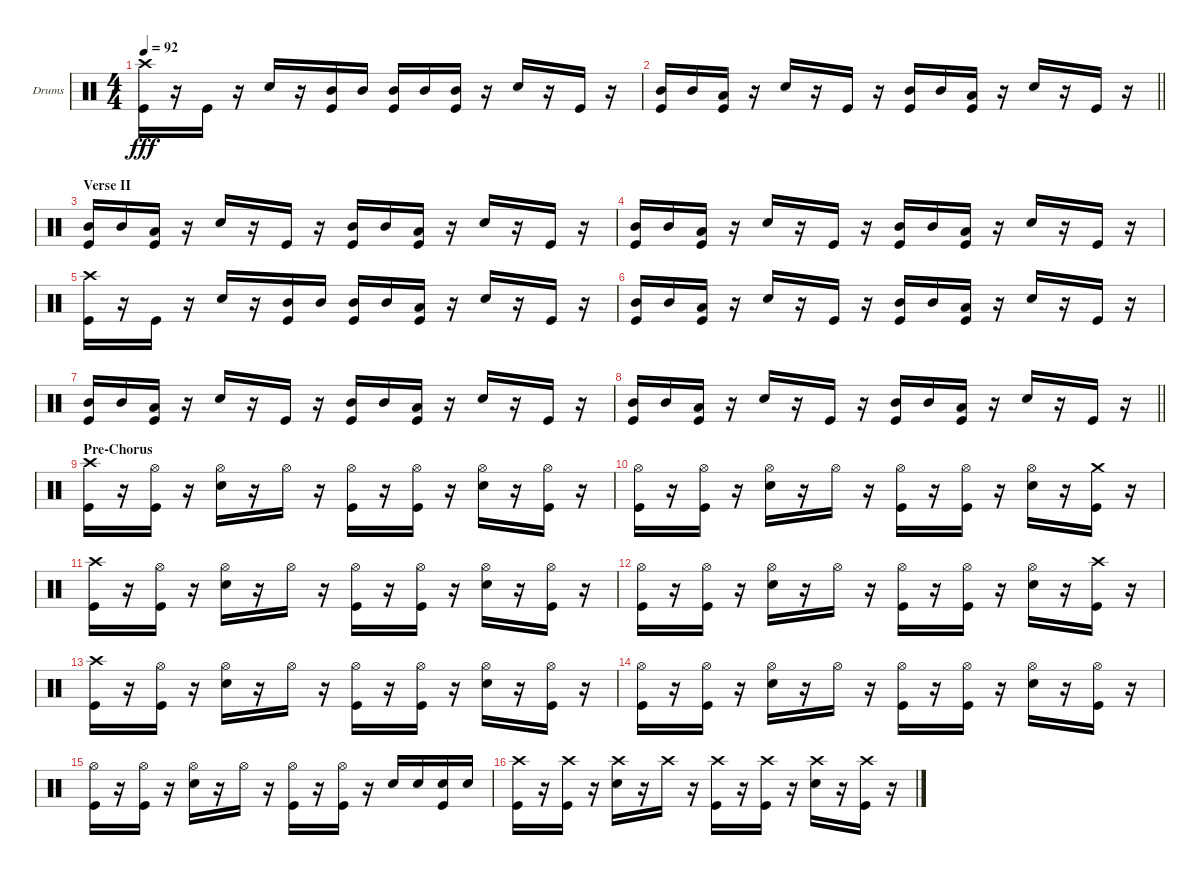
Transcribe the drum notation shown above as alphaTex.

\bracketExtendMode groupsimilarinstruments
\firstSystemTrackNameOrientation horizontal
\otherSystemsTrackNameOrientation horizontal
\track ("Drums" "Drums") {instrument percussion}
\staff {score}
\articulation defaults
\ts (4 4)
\tempo 92
\clef neutral
\ks c
("Crash high (hit)" "Kick (hit)").16{dy fff} r.16 "Kick (hit)".16 r.16 "Snare (hit) 2".16 r.16 ("Kick (hit)" "Mid Tom (hit)").16 "Mid Tom (hit)".16 ("Mid Tom (hit)" "Kick (hit)").16 "Mid Tom (hit)".16 ("Mid Tom (hit)" "Kick (hit)").16 r.16 "Snare (hit) 2".16 r.16 "Kick (hit)".16 r.16 |
\barLineRight lightlight
("Mid Tom (hit)" "Kick (hit)").16 "Mid Tom (hit)".16 ("Low Tom (hit)" "Kick (hit)").16 r.16 "Snare (hit) 2".16 r.16 "Kick (hit)".16 r.16 ("Mid Tom (hit)" "Kick (hit)").16 "Mid Tom (hit)".16 ("Low Tom (hit)" "Kick (hit)").16 r.16 "Snare (hit) 2".16 r.16 "Kick (hit)".16 r.16 |
\section ("" "Verse II")
("Mid Tom (hit)" "Kick (hit)").16 "Mid Tom (hit)".16 ("Low Tom (hit)" "Kick (hit)").16 r.16 "Snare (hit) 2".16 r.16 "Kick (hit)".16 r.16 ("Mid Tom (hit)" "Kick (hit)").16 "Mid Tom (hit)".16 ("Low Tom (hit)" "Kick (hit)").16 r.16 "Snare (hit) 2".16 r.16 "Kick (hit)".16 r.16 |
("Mid Tom (hit)" "Kick (hit)").16 "Mid Tom (hit)".16 ("Low Tom (hit)" "Kick (hit)").16 r.16 "Snare (hit) 2".16 r.16 "Kick (hit)".16 r.16 ("Mid Tom (hit)" "Kick (hit)").16 "Mid Tom (hit)".16 ("Low Tom (hit)" "Kick (hit)").16 r.16 "Snare (hit) 2".16 r.16 "Kick (hit)".16 r.16 |
("Crash high (hit)" "Kick (hit)").16 r.16 "Kick (hit)".16 r.16 "Snare (hit) 2".16 r.16 ("Kick (hit)" "Mid Tom (hit)").16 "Mid Tom (hit)".16 ("Mid Tom (hit)" "Kick (hit)").16 "Mid Tom (hit)".16 ("Low Tom (hit)" "Kick (hit)").16 r.16 "Snare (hit) 2".16 r.16 "Kick (hit)".16 r.16 |
("Mid Tom (hit)" "Kick (hit)").16 "Mid Tom (hit)".16 ("Low Tom (hit)" "Kick (hit)").16 r.16 "Snare (hit) 2".16 r.16 "Kick (hit)".16 r.16 ("Mid Tom (hit)" "Kick (hit)").16 "Mid Tom (hit)".16 ("Low Tom (hit)" "Kick (hit)").16 r.16 "Snare (hit) 2".16 r.16 "Kick (hit)".16 r.16 |
("Mid Tom (hit)" "Kick (hit)").16 "Mid Tom (hit)".16 ("Low Tom (hit)" "Kick (hit)").16 r.16 "Snare (hit) 2".16 r.16 "Kick (hit)".16 r.16 ("Mid Tom (hit)" "Kick (hit)").16 "Mid Tom (hit)".16 ("Low Tom (hit)" "Kick (hit)").16 r.16 "Snare (hit) 2".16 r.16 "Kick (hit)".16 r.16 |
\barLineRight lightlight
("Mid Tom (hit)" "Kick (hit)").16 "Mid Tom (hit)".16 ("Low Tom (hit)" "Kick (hit)").16 r.16 "Snare (hit) 2".16 r.16 "Kick (hit)".16 r.16 ("Mid Tom (hit)" "Kick (hit)").16 "Mid Tom (hit)".16 ("Low Tom (hit)" "Kick (hit)").16 r.16 "Snare (hit) 2".16 r.16 "Kick (hit)".16 r.16 |
\section ("" "Pre-Chorus")
("Crash high (hit)" "Kick (hit)").16 r.16 ("Hi-Hat (open)" "Kick (hit)").16 r.16 ("Hi-Hat (open)" "Snare (hit) 2").16 r.16 "Hi-Hat (open)".16 r.16 ("Hi-Hat (open)" "Kick (hit)").16 r.16 ("Hi-Hat (open)" "Kick (hit)").16 r.16 ("Hi-Hat (open)" "Snare (hit) 2").16 r.16 ("Hi-Hat (open)" "Kick (hit)").16 r.16 |
("Hi-Hat (open)" "Kick (hit)").16 r.16 ("Hi-Hat (open)" "Kick (hit)").16 r.16 ("Hi-Hat (open)" "Snare (hit) 2").16 r.16 "Hi-Hat (open)".16 r.16 ("Hi-Hat (open)" "Kick (hit)").16 r.16 ("Hi-Hat (open)" "Kick (hit)").16 r.16 ("Hi-Hat (open)" "Snare (hit) 2").16 r.16 ("Crash medium (hit)" "Kick (hit)").16 r.16 |
("Crash high (hit)" "Kick (hit)").16 r.16 ("Hi-Hat (open)" "Kick (hit)").16 r.16 ("Hi-Hat (open)" "Snare (hit) 2").16 r.16 "Hi-Hat (open)".16 r.16 ("Hi-Hat (open)" "Kick (hit)").16 r.16 ("Hi-Hat (open)" "Kick (hit)").16 r.16 ("Hi-Hat (open)" "Snare (hit) 2").16 r.16 ("Hi-Hat (open)" "Kick (hit)").16 r.16 |
("Hi-Hat (open)" "Kick (hit)").16 r.16 ("Hi-Hat (open)" "Kick (hit)").16 r.16 ("Hi-Hat (open)" "Snare (hit) 2").16 r.16 "Hi-Hat (open)".16 r.16 ("Hi-Hat (open)" "Kick (hit)").16 r.16 ("Hi-Hat (open)" "Kick (hit)").16 r.16 ("Hi-Hat (open)" "Snare (hit) 2").16 r.16 ("Crash high (hit)" "Kick (hit)").16 r.16 |
("Crash high (hit)" "Kick (hit)").16 r.16 ("Hi-Hat (open)" "Kick (hit)").16 r.16 ("Hi-Hat (open)" "Snare (hit) 2").16 r.16 "Hi-Hat (open)".16 r.16 ("Hi-Hat (open)" "Kick (hit)").16 r.16 ("Hi-Hat (open)" "Kick (hit)").16 r.16 ("Hi-Hat (open)" "Snare (hit) 2").16 r.16 ("Hi-Hat (open)" "Kick (hit)").16 r.16 |
("Hi-Hat (open)" "Kick (hit)").16 r.16 ("Hi-Hat (open)" "Kick (hit)").16 r.16 ("Hi-Hat (open)" "Snare (hit) 2").16 r.16 "Hi-Hat (open)".16 r.16 ("Hi-Hat (open)" "Kick (hit)").16 r.16 ("Hi-Hat (open)" "Kick (hit)").16 r.16 ("Hi-Hat (open)" "Snare (hit) 2").16 r.16 ("Hi-Hat (open)" "Kick (hit)").16 r.16 |
("Hi-Hat (open)" "Kick (hit)").16 r.16 ("Hi-Hat (open)" "Kick (hit)").16 r.16 ("Hi-Hat (open)" "Snare (hit) 2").16 r.16 "Hi-Hat (open)".16 r.16 ("Hi-Hat (open)" "Kick (hit)").16 r.16 ("Hi-Hat (open)" "Kick (hit)").16 r.16 "Snare (hit) 2".16 "Snare (hit) 2".16 ("Snare (hit) 2" "Kick (hit)").16 "Snare (hit) 2".16 |
("Crash high (hit)" "Kick (hit)").16 r.16 ("Crash high (hit)" "Kick (hit)").16 r.16 ("Crash high (hit)" "Snare (hit) 2").16 r.16 "Crash high (hit)".16 r.16 ("Crash high (hit)" "Kick (hit)").16 r.16 ("Crash high (hit)" "Kick (hit)").16 r.16 ("Crash high (hit)" "Snare (hit) 2").16 r.16 ("Crash high (hit)" "Kick (hit)").16 r.16
